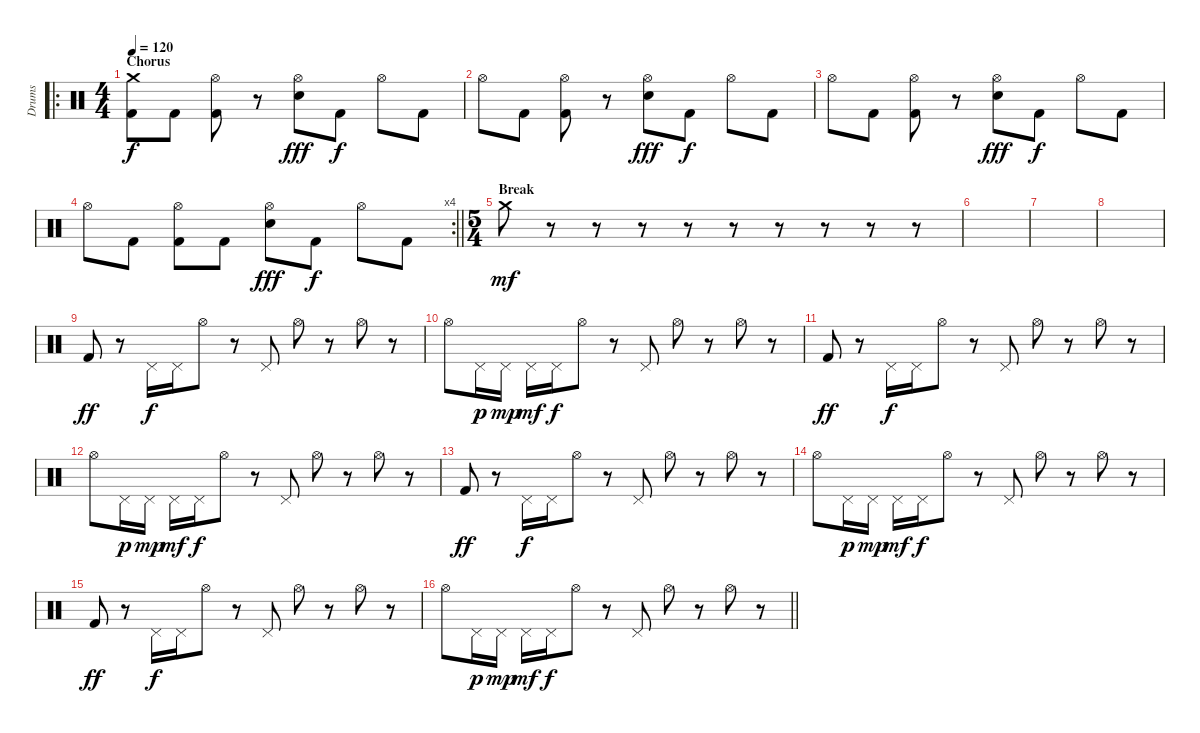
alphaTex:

\track ("Drums" "Drums") {instrument percussion}
\staff {score}
\articulation defaults
\ro
\ts (4 4)
\section ("" "Chorus")
\tempo 120
\clef neutral
\ks c
("Crash medium (hit)" "Kick (hit) 2").8{dy f} "Kick (hit) 2".8 ("Hi-Hat (open)" "Kick (hit) 2").8 r.8 ("Hi-Hat (open)" "Electric Snare (hit)").8{dy fff} "Kick (hit) 2".8{dy f} "Hi-Hat (open)".8 "Kick (hit) 2".8 |
"Hi-Hat (open)".8 "Kick (hit) 2".8 ("Hi-Hat (open)" "Kick (hit) 2").8 r.8 ("Hi-Hat (open)" "Electric Snare (hit)").8{dy fff} "Kick (hit) 2".8{dy f} "Hi-Hat (open)".8 "Kick (hit) 2".8 |
"Hi-Hat (open)".8 "Kick (hit) 2".8 ("Hi-Hat (open)" "Kick (hit) 2").8 r.8 ("Hi-Hat (open)" "Electric Snare (hit)").8{dy fff} "Kick (hit) 2".8{dy f} "Hi-Hat (open)".8 "Kick (hit) 2".8 |
\rc 4
\barLineRight lightlight "Hi-Hat (open)".8 "Kick (hit) 2".8
("Hi-Hat (open)" "Kick (hit) 2").8 "Kick (hit) 2".8 ("Hi-Hat (open)" "Electric Snare (hit)").8{dy fff} "Kick (hit) 2".8{dy f} "Hi-Hat (open)".8 "Kick (hit) 2".8 |
\ts (5 4)
\section ("" "Break")
"Crash medium (hit)".8{dy mf} r.8 r.8 r.8 r.8 r.8 r.8 r.8 r.8 r.8 |
|
|
|
"Kick (hit) 2".8{dy ff} r.8 "Pedal Hi-Hat (hit)".16{dy f} "Pedal Hi-Hat (hit)".16 "Hi-Hat (open)".8 r.8 "Pedal Hi-Hat (hit)".8 "Hi-Hat (open)".8 r.8 "Hi-Hat (open)".8 r.8 |
"Hi-Hat (open)".8 "Pedal Hi-Hat (hit)".16{dy p} "Pedal Hi-Hat (hit)".16{dy mp} "Pedal Hi-Hat (hit)".16{dy mf} "Pedal Hi-Hat (hit)".16{dy f} "Hi-Hat (open)".8 r.8 "Pedal Hi-Hat (hit)".8 "Hi-Hat (open)".8 r.8 "Hi-Hat (open)".8 r.8 |
"Kick (hit) 2".8{dy ff} r.8 "Pedal Hi-Hat (hit)".16{dy f} "Pedal Hi-Hat (hit)".16 "Hi-Hat (open)".8 r.8 "Pedal Hi-Hat (hit)".8 "Hi-Hat (open)".8 r.8 "Hi-Hat (open)".8 r.8 |
"Hi-Hat (open)".8 "Pedal Hi-Hat (hit)".16{dy p} "Pedal Hi-Hat (hit)".16{dy mp} "Pedal Hi-Hat (hit)".16{dy mf} "Pedal Hi-Hat (hit)".16{dy f} "Hi-Hat (open)".8 r.8 "Pedal Hi-Hat (hit)".8 "Hi-Hat (open)".8 r.8 "Hi-Hat (open)".8 r.8 |
"Kick (hit) 2".8{dy ff} r.8 "Pedal Hi-Hat (hit)".16{dy f} "Pedal Hi-Hat (hit)".16 "Hi-Hat (open)".8 r.8 "Pedal Hi-Hat (hit)".8 "Hi-Hat (open)".8 r.8 "Hi-Hat (open)".8 r.8 |
"Hi-Hat (open)".8 "Pedal Hi-Hat (hit)".16{dy p} "Pedal Hi-Hat (hit)".16{dy mp} "Pedal Hi-Hat (hit)".16{dy mf} "Pedal Hi-Hat (hit)".16{dy f} "Hi-Hat (open)".8 r.8 "Pedal Hi-Hat (hit)".8 "Hi-Hat (open)".8 r.8 "Hi-Hat (open)".8 r.8 |
"Kick (hit) 2".8{dy ff} r.8 "Pedal Hi-Hat (hit)".16{dy f} "Pedal Hi-Hat (hit)".16 "Hi-Hat (open)".8 r.8 "Pedal Hi-Hat (hit)".8 "Hi-Hat (open)".8 r.8 "Hi-Hat (open)".8 r.8 |
\barLineRight lightlight "Hi-Hat (open)".8 "Pedal Hi-Hat (hit)".16{dy p} "Pedal Hi-Hat (hit)".16{dy mp} "Pedal Hi-Hat (hit)".16{dy mf} "Pedal Hi-Hat (hit)".16{dy f} "Hi-Hat (open)".8
r.8 "Pedal Hi-Hat (hit)".8 "Hi-Hat (open)".8 r.8 "Hi-Hat (open)".8 r.8
